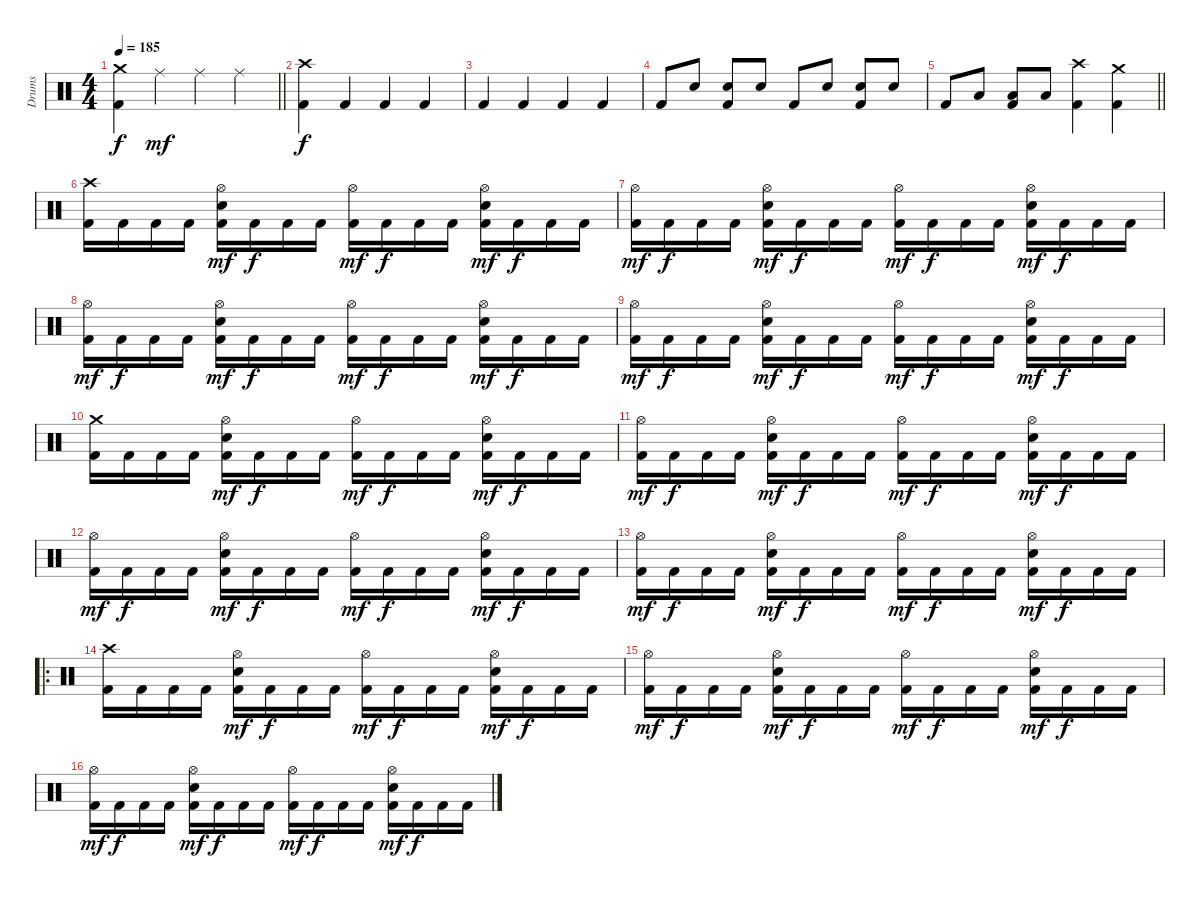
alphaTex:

\track ("Drums" "Drums") {instrument percussion}
\staff {score}
\articulation defaults
\ts (4 4)
\tempo 185
\clef neutral
\barLineRight lightlight
\ks c
("Crash medium (hit)" "Kick (hit) 2").4{dy f} "Ride (middle)".4{dy mf} "Ride (middle)".4 "Ride (middle)".4 |
("Crash high (hit)" "Kick (hit) 2").4{dy f} "Kick (hit) 2".4 "Kick (hit) 2".4 "Kick (hit) 2".4 |
"Kick (hit) 2".4 "Kick (hit) 2".4 "Kick (hit) 2".4 "Kick (hit) 2".4 |
"Kick (hit) 2".8 "Electric Snare (hit)".8 ("Electric Snare (hit)" "Kick (hit) 2").8 "Electric Snare (hit)".8 "Kick (hit) 2".8 "Electric Snare (hit)".8 ("Electric Snare (hit)" "Kick (hit) 2").8 "Electric Snare (hit)".8 |
\barLineRight lightlight "Kick (hit) 2".8 "Low Tom (hit)".8
("Low Tom (hit)" "Kick (hit) 2").8 "Low Tom (hit)".8 ("Crash high (hit)" "Kick (hit) 2").4 ("Crash medium (hit)" "Kick (hit) 2").4 |
("Crash high (hit)" "Kick (hit) 2").16 "Kick (hit) 2".16 "Kick (hit) 2".16 "Kick (hit) 2".16 ("Hi-Hat (open)" "Electric Snare (hit)" "Kick (hit) 2").16{dy mf} "Kick (hit) 2".16{dy f} "Kick (hit) 2".16 "Kick (hit) 2".16 ("Hi-Hat (open)" "Kick (hit) 2").16{dy mf} "Kick (hit) 2".16{dy f} "Kick (hit) 2".16 "Kick (hit) 2".16 ("Hi-Hat (open)" "Electric Snare (hit)" "Kick (hit) 2").16{dy mf} "Kick (hit) 2".16{dy f} "Kick (hit) 2".16 "Kick (hit) 2".16 |
("Hi-Hat (open)" "Kick (hit) 2").16{dy mf} "Kick (hit) 2".16{dy f} "Kick (hit) 2".16 "Kick (hit) 2".16 ("Hi-Hat (open)" "Electric Snare (hit)" "Kick (hit) 2").16{dy mf} "Kick (hit) 2".16{dy f} "Kick (hit) 2".16 "Kick (hit) 2".16 ("Hi-Hat (open)" "Kick (hit) 2").16{dy mf} "Kick (hit) 2".16{dy f} "Kick (hit) 2".16 "Kick (hit) 2".16 ("Hi-Hat (open)" "Electric Snare (hit)" "Kick (hit) 2").16{dy mf} "Kick (hit) 2".16{dy f} "Kick (hit) 2".16 "Kick (hit) 2".16 |
("Hi-Hat (open)" "Kick (hit) 2").16{dy mf} "Kick (hit) 2".16{dy f} "Kick (hit) 2".16 "Kick (hit) 2".16 ("Hi-Hat (open)" "Electric Snare (hit)" "Kick (hit) 2").16{dy mf} "Kick (hit) 2".16{dy f} "Kick (hit) 2".16 "Kick (hit) 2".16 ("Hi-Hat (open)" "Kick (hit) 2").16{dy mf} "Kick (hit) 2".16{dy f} "Kick (hit) 2".16 "Kick (hit) 2".16 ("Hi-Hat (open)" "Electric Snare (hit)" "Kick (hit) 2").16{dy mf} "Kick (hit) 2".16{dy f} "Kick (hit) 2".16 "Kick (hit) 2".16 |
("Hi-Hat (open)" "Kick (hit) 2").16{dy mf} "Kick (hit) 2".16{dy f} "Kick (hit) 2".16 "Kick (hit) 2".16 ("Hi-Hat (open)" "Electric Snare (hit)" "Kick (hit) 2").16{dy mf} "Kick (hit) 2".16{dy f} "Kick (hit) 2".16 "Kick (hit) 2".16 ("Hi-Hat (open)" "Kick (hit) 2").16{dy mf} "Kick (hit) 2".16{dy f} "Kick (hit) 2".16 "Kick (hit) 2".16 ("Hi-Hat (open)" "Electric Snare (hit)" "Kick (hit) 2").16{dy mf} "Kick (hit) 2".16{dy f} "Kick (hit) 2".16 "Kick (hit) 2".16 |
("Crash medium (hit)" "Kick (hit) 2").16 "Kick (hit) 2".16 "Kick (hit) 2".16 "Kick (hit) 2".16 ("Hi-Hat (open)" "Electric Snare (hit)" "Kick (hit) 2").16{dy mf} "Kick (hit) 2".16{dy f} "Kick (hit) 2".16 "Kick (hit) 2".16 ("Hi-Hat (open)" "Kick (hit) 2").16{dy mf} "Kick (hit) 2".16{dy f} "Kick (hit) 2".16 "Kick (hit) 2".16 ("Hi-Hat (open)" "Electric Snare (hit)" "Kick (hit) 2").16{dy mf} "Kick (hit) 2".16{dy f} "Kick (hit) 2".16 "Kick (hit) 2".16 |
("Hi-Hat (open)" "Kick (hit) 2").16{dy mf} "Kick (hit) 2".16{dy f} "Kick (hit) 2".16 "Kick (hit) 2".16 ("Hi-Hat (open)" "Electric Snare (hit)" "Kick (hit) 2").16{dy mf} "Kick (hit) 2".16{dy f} "Kick (hit) 2".16 "Kick (hit) 2".16 ("Hi-Hat (open)" "Kick (hit) 2").16{dy mf} "Kick (hit) 2".16{dy f} "Kick (hit) 2".16 "Kick (hit) 2".16 ("Hi-Hat (open)" "Electric Snare (hit)" "Kick (hit) 2").16{dy mf} "Kick (hit) 2".16{dy f} "Kick (hit) 2".16 "Kick (hit) 2".16 |
("Hi-Hat (open)" "Kick (hit) 2").16{dy mf} "Kick (hit) 2".16{dy f} "Kick (hit) 2".16 "Kick (hit) 2".16 ("Hi-Hat (open)" "Electric Snare (hit)" "Kick (hit) 2").16{dy mf} "Kick (hit) 2".16{dy f} "Kick (hit) 2".16 "Kick (hit) 2".16 ("Hi-Hat (open)" "Kick (hit) 2").16{dy mf} "Kick (hit) 2".16{dy f} "Kick (hit) 2".16 "Kick (hit) 2".16 ("Hi-Hat (open)" "Electric Snare (hit)" "Kick (hit) 2").16{dy mf} "Kick (hit) 2".16{dy f} "Kick (hit) 2".16 "Kick (hit) 2".16 |
("Hi-Hat (open)" "Kick (hit) 2").16{dy mf} "Kick (hit) 2".16{dy f} "Kick (hit) 2".16 "Kick (hit) 2".16 ("Hi-Hat (open)" "Electric Snare (hit)" "Kick (hit) 2").16{dy mf} "Kick (hit) 2".16{dy f} "Kick (hit) 2".16 "Kick (hit) 2".16 ("Hi-Hat (open)" "Kick (hit) 2").16{dy mf} "Kick (hit) 2".16{dy f} "Kick (hit) 2".16 "Kick (hit) 2".16 ("Hi-Hat (open)" "Electric Snare (hit)" "Kick (hit) 2").16{dy mf} "Kick (hit) 2".16{dy f} "Kick (hit) 2".16 "Kick (hit) 2".16 |
\ro
("Crash high (hit)" "Kick (hit) 2").16 "Kick (hit) 2".16 "Kick (hit) 2".16 "Kick (hit) 2".16 ("Hi-Hat (open)" "Electric Snare (hit)" "Kick (hit) 2").16{dy mf} "Kick (hit) 2".16{dy f} "Kick (hit) 2".16 "Kick (hit) 2".16 ("Hi-Hat (open)" "Kick (hit) 2").16{dy mf} "Kick (hit) 2".16{dy f} "Kick (hit) 2".16 "Kick (hit) 2".16 ("Hi-Hat (open)" "Electric Snare (hit)" "Kick (hit) 2").16{dy mf} "Kick (hit) 2".16{dy f} "Kick (hit) 2".16 "Kick (hit) 2".16 |
("Hi-Hat (open)" "Kick (hit) 2").16{dy mf} "Kick (hit) 2".16{dy f} "Kick (hit) 2".16 "Kick (hit) 2".16 ("Hi-Hat (open)" "Electric Snare (hit)" "Kick (hit) 2").16{dy mf} "Kick (hit) 2".16{dy f} "Kick (hit) 2".16 "Kick (hit) 2".16 ("Hi-Hat (open)" "Kick (hit) 2").16{dy mf} "Kick (hit) 2".16{dy f} "Kick (hit) 2".16 "Kick (hit) 2".16 ("Hi-Hat (open)" "Electric Snare (hit)" "Kick (hit) 2").16{dy mf} "Kick (hit) 2".16{dy f} "Kick (hit) 2".16 "Kick (hit) 2".16 |
("Hi-Hat (open)" "Kick (hit) 2").16{dy mf} "Kick (hit) 2".16{dy f} "Kick (hit) 2".16 "Kick (hit) 2".16 ("Hi-Hat (open)" "Electric Snare (hit)" "Kick (hit) 2").16{dy mf} "Kick (hit) 2".16{dy f} "Kick (hit) 2".16 "Kick (hit) 2".16 ("Hi-Hat (open)" "Kick (hit) 2").16{dy mf} "Kick (hit) 2".16{dy f} "Kick (hit) 2".16 "Kick (hit) 2".16 ("Hi-Hat (open)" "Electric Snare (hit)" "Kick (hit) 2").16{dy mf} "Kick (hit) 2".16{dy f} "Kick (hit) 2".16 "Kick (hit) 2".16
